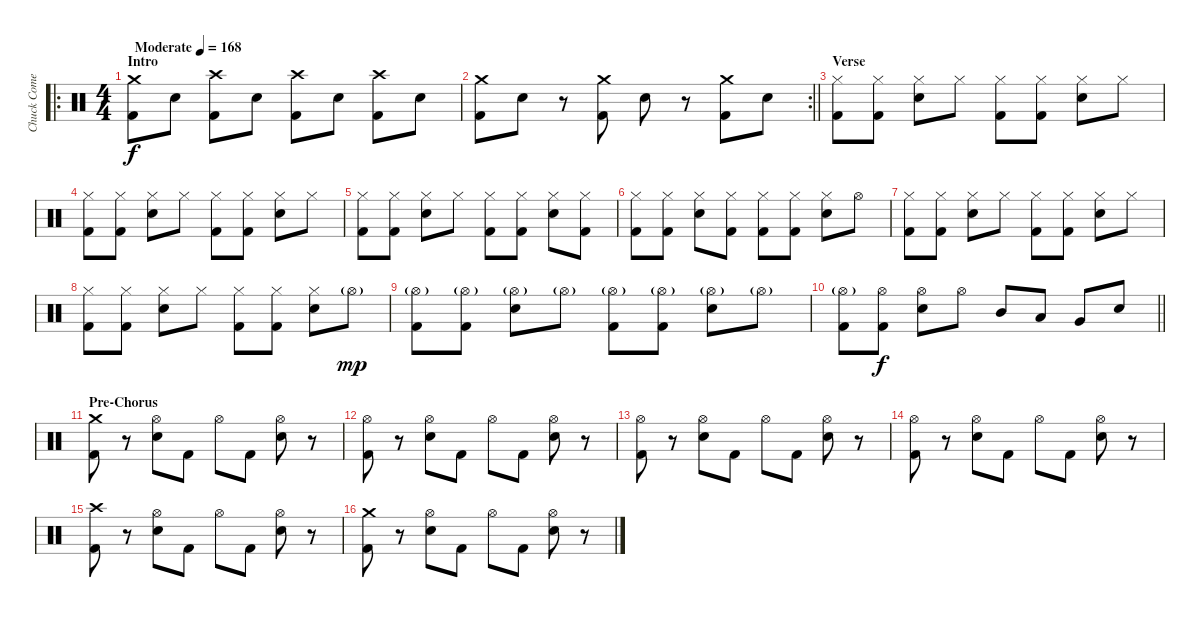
\track ("Chuck Comeau" "Chuck Come") {instrument percussion}
\staff {score}
\articulation defaults
\ro
\ts (4 4)
\section ("" "Intro")
\tempo (168 "Moderate")
\clef neutral
\ks c
("Crash medium (hit)" "Kick (hit) 2").8{dy f} "Snare (hit) 2".8 ("Crash high (hit)" "Kick (hit) 2").8 "Snare (hit) 2".8 ("Crash high (hit)" "Kick (hit) 2").8 "Snare (hit) 2".8 ("Crash high (hit)" "Kick (hit) 2").8 "Snare (hit) 2".8 |
\rc 2
\barLineRight lightlight
("Crash medium (hit)" "Kick (hit) 2").8 "Snare (hit) 2".8 r.8 ("Crash medium (hit)" "Kick (hit) 2").8 "Snare (hit) 2".8 r.8 ("Crash medium (hit)" "Kick (hit) 2").8 "Snare (hit) 2".8 |
\section ("" "Verse")
("Hi-Hat (closed)" "Kick (hit) 2").8 ("Hi-Hat (closed)" "Kick (hit) 2").8 ("Hi-Hat (closed)" "Snare (hit) 2").8 "Hi-Hat (closed)".8 ("Hi-Hat (closed)" "Kick (hit) 2").8 ("Hi-Hat (closed)" "Kick (hit) 2").8 ("Hi-Hat (closed)" "Snare (hit) 2").8 "Hi-Hat (closed)".8 |
("Hi-Hat (closed)" "Kick (hit) 2").8 ("Hi-Hat (closed)" "Kick (hit) 2").8 ("Hi-Hat (closed)" "Snare (hit) 2").8 "Hi-Hat (closed)".8 ("Hi-Hat (closed)" "Kick (hit) 2").8 ("Hi-Hat (closed)" "Kick (hit) 2").8 ("Hi-Hat (closed)" "Snare (hit) 2").8 "Hi-Hat (closed)".8 |
("Hi-Hat (closed)" "Kick (hit) 2").8 ("Hi-Hat (closed)" "Kick (hit) 2").8 ("Hi-Hat (closed)" "Snare (hit) 2").8 "Hi-Hat (closed)".8 ("Hi-Hat (closed)" "Kick (hit) 2").8 ("Hi-Hat (closed)" "Kick (hit) 2").8 ("Hi-Hat (closed)" "Snare (hit) 2").8 ("Hi-Hat (closed)" "Kick (hit) 2").8 |
("Hi-Hat (closed)" "Kick (hit) 2").8 ("Hi-Hat (closed)" "Kick (hit) 2").8 ("Hi-Hat (closed)" "Snare (hit) 2").8 ("Hi-Hat (closed)" "Kick (hit) 2").8 ("Hi-Hat (closed)" "Kick (hit) 2").8 ("Hi-Hat (closed)" "Kick (hit) 2").8 ("Hi-Hat (closed)" "Snare (hit) 2").8 "Hi-Hat (open)".8 |
("Hi-Hat (closed)" "Kick (hit) 2").8 ("Hi-Hat (closed)" "Kick (hit) 2").8 ("Hi-Hat (closed)" "Snare (hit) 2").8 "Hi-Hat (closed)".8 ("Hi-Hat (closed)" "Kick (hit) 2").8 ("Hi-Hat (closed)" "Kick (hit) 2").8 ("Hi-Hat (closed)" "Snare (hit) 2").8 "Hi-Hat (closed)".8 |
("Hi-Hat (closed)" "Kick (hit) 2").8 ("Hi-Hat (closed)" "Kick (hit) 2").8 ("Hi-Hat (closed)" "Snare (hit) 2").8 "Hi-Hat (closed)".8 ("Hi-Hat (closed)" "Kick (hit) 2").8 ("Hi-Hat (closed)" "Kick (hit) 2").8 ("Hi-Hat (closed)" "Snare (hit) 2").8 "Hi-Hat (open)"{g}.8{dy mp} |
("Hi-Hat (open)"{g} "Kick (hit) 2").8 ("Hi-Hat (open)"{g} "Kick (hit) 2").8 ("Hi-Hat (open)"{g} "Snare (hit) 2").8 "Hi-Hat (open)"{g}.8 ("Hi-Hat (open)"{g} "Kick (hit) 2").8 ("Hi-Hat (open)"{g} "Kick (hit) 2").8 ("Hi-Hat (open)"{g} "Snare (hit) 2").8 "Hi-Hat (open)"{g}.8 |
\barLineRight lightlight
("Hi-Hat (open)"{g} "Kick (hit) 2").8 ("Hi-Hat (open)" "Kick (hit) 2").8{dy f} ("Hi-Hat (open)" "Snare (hit) 2").8 "Hi-Hat (open)".8 "Mid Tom (hit)".8 "Low Tom (hit)".8 "Very Low Tom (hit)".8 "Snare (hit) 2".8 |
\section ("" "Pre-Chorus")
("Crash medium (hit)" "Kick (hit) 2").8 r.8 ("Hi-Hat (open)" "Snare (hit) 2").8 "Kick (hit) 2".8 "Hi-Hat (open)".8 "Kick (hit) 2".8 ("Hi-Hat (open)" "Snare (hit) 2").8 r.8 |
("Hi-Hat (open)" "Kick (hit) 2").8 r.8 ("Hi-Hat (open)" "Snare (hit) 2").8 "Kick (hit) 2".8 "Hi-Hat (open)".8 "Kick (hit) 2".8 ("Hi-Hat (open)" "Snare (hit) 2").8 r.8 |
("Hi-Hat (open)" "Kick (hit) 2").8 r.8 ("Hi-Hat (open)" "Snare (hit) 2").8 "Kick (hit) 2".8 "Hi-Hat (open)".8 "Kick (hit) 2".8 ("Hi-Hat (open)" "Snare (hit) 2").8 r.8 |
("Hi-Hat (open)" "Kick (hit) 2").8 r.8 ("Hi-Hat (open)" "Snare (hit) 2").8 "Kick (hit) 2".8 "Hi-Hat (open)".8 "Kick (hit) 2".8 ("Hi-Hat (open)" "Snare (hit) 2").8 r.8 |
("Crash high (hit)" "Kick (hit) 2").8 r.8 ("Hi-Hat (open)" "Snare (hit) 2").8 "Kick (hit) 2".8 "Hi-Hat (open)".8 "Kick (hit) 2".8 ("Hi-Hat (open)" "Snare (hit) 2").8 r.8 |
("Crash medium (hit)" "Kick (hit) 2").8 r.8 ("Hi-Hat (open)" "Snare (hit) 2").8 "Kick (hit) 2".8 "Hi-Hat (open)".8 "Kick (hit) 2".8 ("Hi-Hat (open)" "Snare (hit) 2").8 r.8
